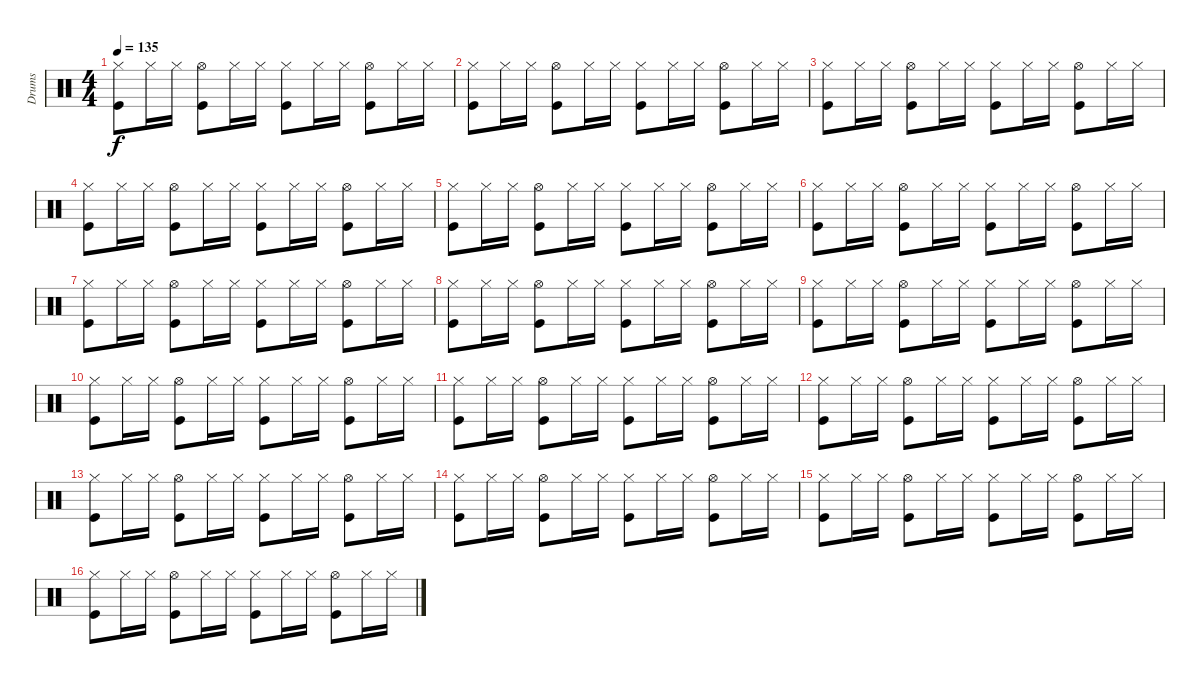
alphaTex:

\track ("Drums" "Drums") {instrument percussion}
\staff {score}
\articulation defaults
\ts (4 4)
\tempo 135
\clef neutral
\ks c
("Hi-Hat (closed)" "Kick (hit)").8{dy f} "Hi-Hat (closed)".16 "Hi-Hat (closed)".16 ("Hi-Hat (open)" "Kick (hit)").8 "Hi-Hat (closed)".16 "Hi-Hat (closed)".16 ("Hi-Hat (closed)" "Kick (hit)").8 "Hi-Hat (closed)".16 "Hi-Hat (closed)".16 ("Hi-Hat (open)" "Kick (hit)").8 "Hi-Hat (closed)".16 "Hi-Hat (closed)".16 |
("Hi-Hat (closed)" "Kick (hit)").8 "Hi-Hat (closed)".16 "Hi-Hat (closed)".16 ("Hi-Hat (open)" "Kick (hit)").8 "Hi-Hat (closed)".16 "Hi-Hat (closed)".16 ("Hi-Hat (closed)" "Kick (hit)").8 "Hi-Hat (closed)".16 "Hi-Hat (closed)".16 ("Hi-Hat (open)" "Kick (hit)").8 "Hi-Hat (closed)".16 "Hi-Hat (closed)".16 |
("Hi-Hat (closed)" "Kick (hit)").8 "Hi-Hat (closed)".16 "Hi-Hat (closed)".16 ("Hi-Hat (open)" "Kick (hit)").8 "Hi-Hat (closed)".16 "Hi-Hat (closed)".16 ("Hi-Hat (closed)" "Kick (hit)").8 "Hi-Hat (closed)".16 "Hi-Hat (closed)".16 ("Hi-Hat (open)" "Kick (hit)").8 "Hi-Hat (closed)".16 "Hi-Hat (closed)".16 |
("Hi-Hat (closed)" "Kick (hit)").8 "Hi-Hat (closed)".16 "Hi-Hat (closed)".16 ("Hi-Hat (open)" "Kick (hit)").8 "Hi-Hat (closed)".16 "Hi-Hat (closed)".16 ("Hi-Hat (closed)" "Kick (hit)").8 "Hi-Hat (closed)".16 "Hi-Hat (closed)".16 ("Hi-Hat (open)" "Kick (hit)").8 "Hi-Hat (closed)".16 "Hi-Hat (closed)".16 |
("Hi-Hat (closed)" "Kick (hit)").8 "Hi-Hat (closed)".16 "Hi-Hat (closed)".16 ("Hi-Hat (open)" "Kick (hit)").8 "Hi-Hat (closed)".16 "Hi-Hat (closed)".16 ("Hi-Hat (closed)" "Kick (hit)").8 "Hi-Hat (closed)".16 "Hi-Hat (closed)".16 ("Hi-Hat (open)" "Kick (hit)").8 "Hi-Hat (closed)".16 "Hi-Hat (closed)".16 |
("Hi-Hat (closed)" "Kick (hit)").8 "Hi-Hat (closed)".16 "Hi-Hat (closed)".16 ("Hi-Hat (open)" "Kick (hit)").8 "Hi-Hat (closed)".16 "Hi-Hat (closed)".16 ("Hi-Hat (closed)" "Kick (hit)").8 "Hi-Hat (closed)".16 "Hi-Hat (closed)".16 ("Hi-Hat (open)" "Kick (hit)").8 "Hi-Hat (closed)".16 "Hi-Hat (closed)".16 |
("Hi-Hat (closed)" "Kick (hit)").8 "Hi-Hat (closed)".16 "Hi-Hat (closed)".16 ("Hi-Hat (open)" "Kick (hit)").8 "Hi-Hat (closed)".16 "Hi-Hat (closed)".16 ("Hi-Hat (closed)" "Kick (hit)").8 "Hi-Hat (closed)".16 "Hi-Hat (closed)".16 ("Hi-Hat (open)" "Kick (hit)").8 "Hi-Hat (closed)".16 "Hi-Hat (closed)".16 |
("Hi-Hat (closed)" "Kick (hit)").8 "Hi-Hat (closed)".16 "Hi-Hat (closed)".16 ("Hi-Hat (open)" "Kick (hit)").8 "Hi-Hat (closed)".16 "Hi-Hat (closed)".16 ("Hi-Hat (closed)" "Kick (hit)").8 "Hi-Hat (closed)".16 "Hi-Hat (closed)".16 ("Hi-Hat (open)" "Kick (hit)").8 "Hi-Hat (closed)".16 "Hi-Hat (closed)".16 |
("Hi-Hat (closed)" "Kick (hit)").8 "Hi-Hat (closed)".16 "Hi-Hat (closed)".16 ("Hi-Hat (open)" "Kick (hit)").8 "Hi-Hat (closed)".16 "Hi-Hat (closed)".16 ("Hi-Hat (closed)" "Kick (hit)").8 "Hi-Hat (closed)".16 "Hi-Hat (closed)".16 ("Hi-Hat (open)" "Kick (hit)").8 "Hi-Hat (closed)".16 "Hi-Hat (closed)".16 |
("Hi-Hat (closed)" "Kick (hit)").8 "Hi-Hat (closed)".16 "Hi-Hat (closed)".16 ("Hi-Hat (open)" "Kick (hit)").8 "Hi-Hat (closed)".16 "Hi-Hat (closed)".16 ("Hi-Hat (closed)" "Kick (hit)").8 "Hi-Hat (closed)".16 "Hi-Hat (closed)".16 ("Hi-Hat (open)" "Kick (hit)").8 "Hi-Hat (closed)".16 "Hi-Hat (closed)".16 |
("Hi-Hat (closed)" "Kick (hit)").8 "Hi-Hat (closed)".16 "Hi-Hat (closed)".16 ("Hi-Hat (open)" "Kick (hit)").8 "Hi-Hat (closed)".16 "Hi-Hat (closed)".16 ("Hi-Hat (closed)" "Kick (hit)").8 "Hi-Hat (closed)".16 "Hi-Hat (closed)".16 ("Hi-Hat (open)" "Kick (hit)").8 "Hi-Hat (closed)".16 "Hi-Hat (closed)".16 |
("Hi-Hat (closed)" "Kick (hit)").8 "Hi-Hat (closed)".16 "Hi-Hat (closed)".16 ("Hi-Hat (open)" "Kick (hit)").8 "Hi-Hat (closed)".16 "Hi-Hat (closed)".16 ("Hi-Hat (closed)" "Kick (hit)").8 "Hi-Hat (closed)".16 "Hi-Hat (closed)".16 ("Hi-Hat (open)" "Kick (hit)").8 "Hi-Hat (closed)".16 "Hi-Hat (closed)".16 |
("Hi-Hat (closed)" "Kick (hit)").8 "Hi-Hat (closed)".16 "Hi-Hat (closed)".16 ("Hi-Hat (open)" "Kick (hit)").8 "Hi-Hat (closed)".16 "Hi-Hat (closed)".16 ("Hi-Hat (closed)" "Kick (hit)").8 "Hi-Hat (closed)".16 "Hi-Hat (closed)".16 ("Hi-Hat (open)" "Kick (hit)").8 "Hi-Hat (closed)".16 "Hi-Hat (closed)".16 |
("Hi-Hat (closed)" "Kick (hit)").8 "Hi-Hat (closed)".16 "Hi-Hat (closed)".16 ("Hi-Hat (open)" "Kick (hit)").8 "Hi-Hat (closed)".16 "Hi-Hat (closed)".16 ("Hi-Hat (closed)" "Kick (hit)").8 "Hi-Hat (closed)".16 "Hi-Hat (closed)".16 ("Hi-Hat (open)" "Kick (hit)").8 "Hi-Hat (closed)".16 "Hi-Hat (closed)".16 |
("Hi-Hat (closed)" "Kick (hit)").8 "Hi-Hat (closed)".16 "Hi-Hat (closed)".16 ("Hi-Hat (open)" "Kick (hit)").8 "Hi-Hat (closed)".16 "Hi-Hat (closed)".16 ("Hi-Hat (closed)" "Kick (hit)").8 "Hi-Hat (closed)".16 "Hi-Hat (closed)".16 ("Hi-Hat (open)" "Kick (hit)").8 "Hi-Hat (closed)".16 "Hi-Hat (closed)".16 |
("Hi-Hat (closed)" "Kick (hit)").8 "Hi-Hat (closed)".16 "Hi-Hat (closed)".16 ("Hi-Hat (open)" "Kick (hit)").8 "Hi-Hat (closed)".16 "Hi-Hat (closed)".16 ("Hi-Hat (closed)" "Kick (hit)").8 "Hi-Hat (closed)".16 "Hi-Hat (closed)".16 ("Hi-Hat (open)" "Kick (hit)").8 "Hi-Hat (closed)".16 "Hi-Hat (closed)".16
